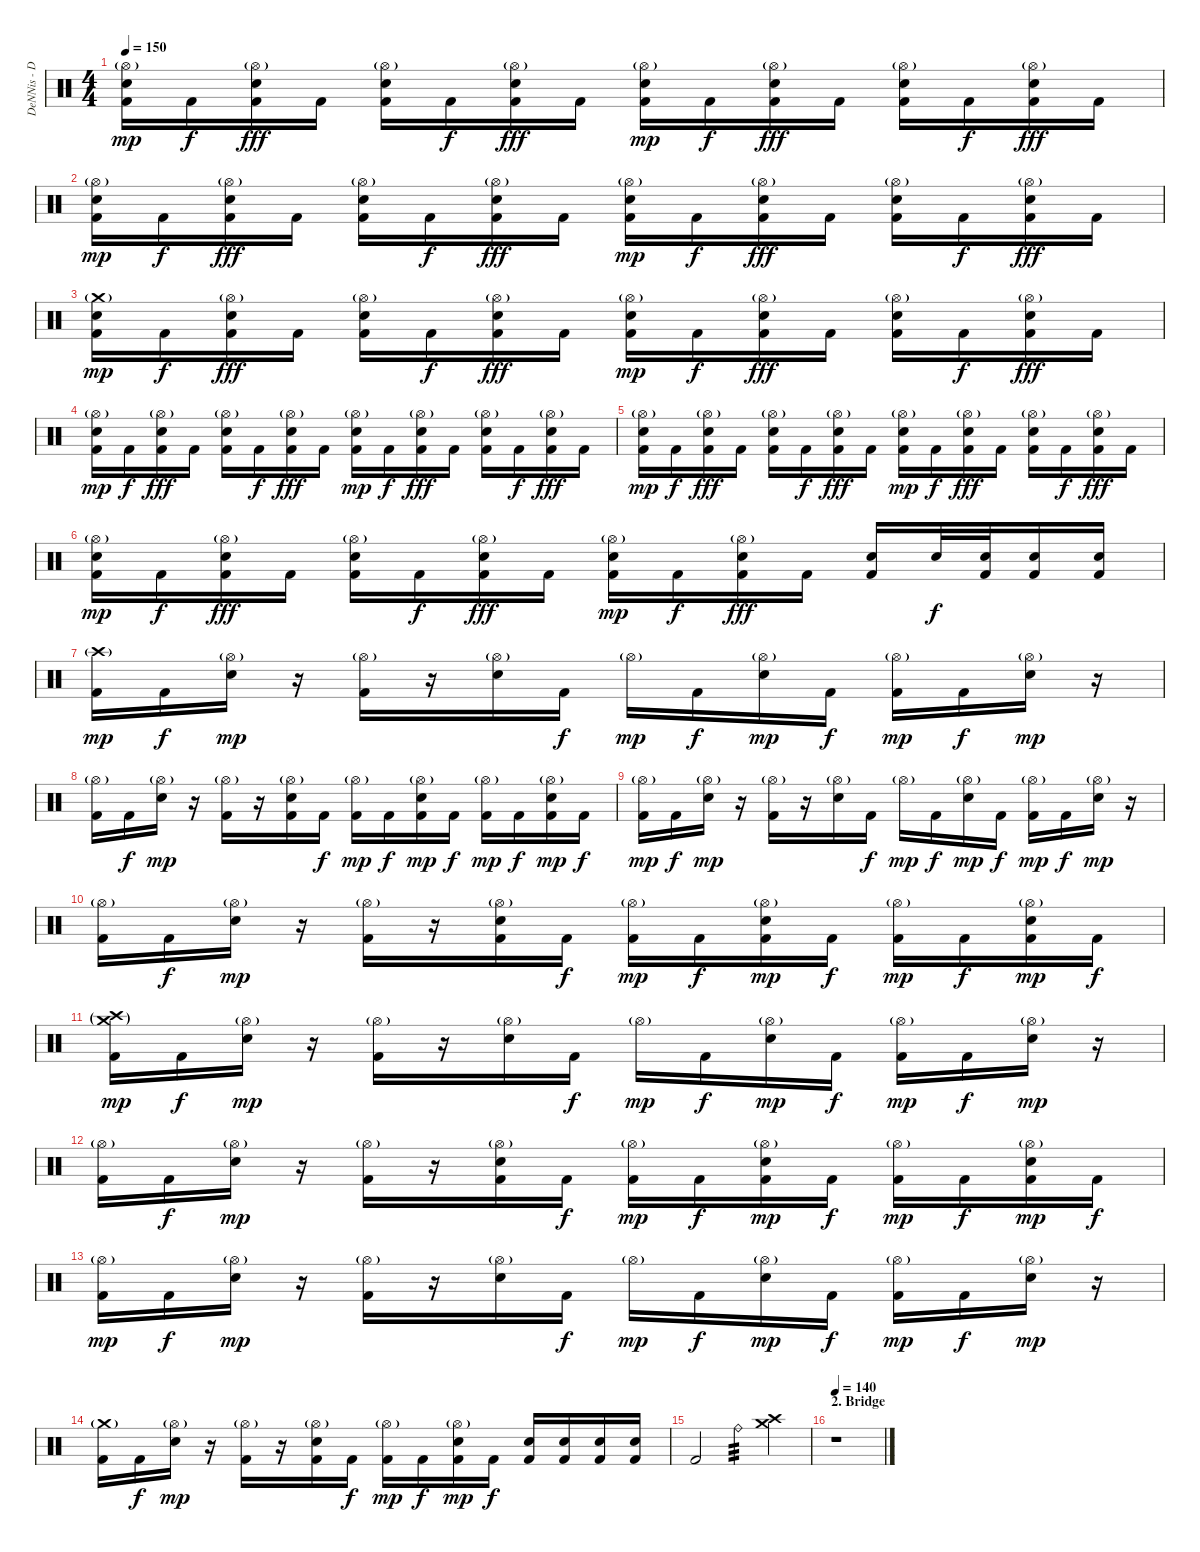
\track ("DeNNis - Drums" "DeNNis - D") {instrument percussion}
\staff {score}
\articulation defaults
\ts (4 4)
\tempo 150
\clef neutral
\ks c
("Hi-Hat (open)"{g} "Electric Snare (hit)" "Kick (hit) 2").16{dy mp} "Kick (hit) 2".16{dy f} ("Hi-Hat (open)"{g} "Electric Snare (hit)" "Kick (hit) 2").16{dy fff} "Kick (hit) 2".16 ("Hi-Hat (open)"{g} "Electric Snare (hit)" "Kick (hit) 2").16 "Kick (hit) 2".16{dy f} ("Hi-Hat (open)"{g} "Electric Snare (hit)" "Kick (hit) 2").16{dy fff} "Kick (hit) 2".16 ("Hi-Hat (open)"{g} "Electric Snare (hit)" "Kick (hit) 2").16{dy mp} "Kick (hit) 2".16{dy f} ("Hi-Hat (open)"{g} "Electric Snare (hit)" "Kick (hit) 2").16{dy fff} "Kick (hit) 2".16 ("Hi-Hat (open)"{g} "Electric Snare (hit)" "Kick (hit) 2").16 "Kick (hit) 2".16{dy f} ("Hi-Hat (open)"{g} "Electric Snare (hit)" "Kick (hit) 2").16{dy fff} "Kick (hit) 2".16 |
("Hi-Hat (open)"{g} "Electric Snare (hit)" "Kick (hit) 2").16{dy mp} "Kick (hit) 2".16{dy f} ("Hi-Hat (open)"{g} "Electric Snare (hit)" "Kick (hit) 2").16{dy fff} "Kick (hit) 2".16 ("Hi-Hat (open)"{g} "Electric Snare (hit)" "Kick (hit) 2").16 "Kick (hit) 2".16{dy f} ("Hi-Hat (open)"{g} "Electric Snare (hit)" "Kick (hit) 2").16{dy fff} "Kick (hit) 2".16 ("Hi-Hat (open)"{g} "Electric Snare (hit)" "Kick (hit) 2").16{dy mp} "Kick (hit) 2".16{dy f} ("Hi-Hat (open)"{g} "Electric Snare (hit)" "Kick (hit) 2").16{dy fff} "Kick (hit) 2".16 ("Hi-Hat (open)"{g} "Electric Snare (hit)" "Kick (hit) 2").16 "Kick (hit) 2".16{dy f} ("Hi-Hat (open)"{g} "Electric Snare (hit)" "Kick (hit) 2").16{dy fff} "Kick (hit) 2".16 |
("Crash medium (hit)"{g} "Electric Snare (hit)" "Kick (hit) 2").16{dy mp} "Kick (hit) 2".16{dy f} ("Hi-Hat (open)"{g} "Electric Snare (hit)" "Kick (hit) 2").16{dy fff} "Kick (hit) 2".16 ("Hi-Hat (open)"{g} "Electric Snare (hit)" "Kick (hit) 2").16 "Kick (hit) 2".16{dy f} ("Hi-Hat (open)"{g} "Electric Snare (hit)" "Kick (hit) 2").16{dy fff} "Kick (hit) 2".16 ("Hi-Hat (open)"{g} "Electric Snare (hit)" "Kick (hit) 2").16{dy mp} "Kick (hit) 2".16{dy f} ("Hi-Hat (open)"{g} "Electric Snare (hit)" "Kick (hit) 2").16{dy fff} "Kick (hit) 2".16 ("Hi-Hat (open)"{g} "Electric Snare (hit)" "Kick (hit) 2").16 "Kick (hit) 2".16{dy f} ("Hi-Hat (open)"{g} "Electric Snare (hit)" "Kick (hit) 2").16{dy fff} "Kick (hit) 2".16 |
("Hi-Hat (open)"{g} "Electric Snare (hit)" "Kick (hit) 2").16{dy mp} "Kick (hit) 2".16{dy f} ("Hi-Hat (open)"{g} "Electric Snare (hit)" "Kick (hit) 2").16{dy fff} "Kick (hit) 2".16 ("Hi-Hat (open)"{g} "Electric Snare (hit)" "Kick (hit) 2").16 "Kick (hit) 2".16{dy f} ("Hi-Hat (open)"{g} "Electric Snare (hit)" "Kick (hit) 2").16{dy fff} "Kick (hit) 2".16 ("Hi-Hat (open)"{g} "Electric Snare (hit)" "Kick (hit) 2").16{dy mp} "Kick (hit) 2".16{dy f} ("Hi-Hat (open)"{g} "Electric Snare (hit)" "Kick (hit) 2").16{dy fff} "Kick (hit) 2".16 ("Hi-Hat (open)"{g} "Electric Snare (hit)" "Kick (hit) 2").16 "Kick (hit) 2".16{dy f} ("Hi-Hat (open)"{g} "Electric Snare (hit)" "Kick (hit) 2").16{dy fff} "Kick (hit) 2".16 |
("Hi-Hat (open)"{g} "Electric Snare (hit)" "Kick (hit) 2").16{dy mp} "Kick (hit) 2".16{dy f} ("Hi-Hat (open)"{g} "Electric Snare (hit)" "Kick (hit) 2").16{dy fff} "Kick (hit) 2".16 ("Hi-Hat (open)"{g} "Electric Snare (hit)" "Kick (hit) 2").16 "Kick (hit) 2".16{dy f} ("Hi-Hat (open)"{g} "Electric Snare (hit)" "Kick (hit) 2").16{dy fff} "Kick (hit) 2".16 ("Hi-Hat (open)"{g} "Electric Snare (hit)" "Kick (hit) 2").16{dy mp} "Kick (hit) 2".16{dy f} ("Hi-Hat (open)"{g} "Electric Snare (hit)" "Kick (hit) 2").16{dy fff} "Kick (hit) 2".16 ("Hi-Hat (open)"{g} "Electric Snare (hit)" "Kick (hit) 2").16 "Kick (hit) 2".16{dy f} ("Hi-Hat (open)"{g} "Electric Snare (hit)" "Kick (hit) 2").16{dy fff} "Kick (hit) 2".16 |
("Hi-Hat (open)"{g} "Electric Snare (hit)" "Kick (hit) 2").16{dy mp} "Kick (hit) 2".16{dy f} ("Hi-Hat (open)"{g} "Electric Snare (hit)" "Kick (hit) 2").16{dy fff} "Kick (hit) 2".16 ("Hi-Hat (open)"{g} "Electric Snare (hit)" "Kick (hit) 2").16 "Kick (hit) 2".16{dy f} ("Hi-Hat (open)"{g} "Electric Snare (hit)" "Kick (hit) 2").16{dy fff} "Kick (hit) 2".16 ("Hi-Hat (open)"{g} "Electric Snare (hit)" "Kick (hit) 2").16{dy mp} "Kick (hit) 2".16{dy f} ("Hi-Hat (open)"{g} "Electric Snare (hit)" "Kick (hit) 2").16{dy fff} "Kick (hit) 2".16 ("Electric Snare (hit)" "Kick (hit) 2").16 "Electric Snare (hit)".32{dy f} ("Electric Snare (hit)" "Kick (hit) 2").32 ("Electric Snare (hit)" "Kick (hit) 2").16 ("Electric Snare (hit)" "Kick (hit) 2").16 |
("Crash high (hit)"{g} "Kick (hit) 2").16{dy mp} "Kick (hit) 2".16{dy f} ("Hi-Hat (open)"{g} "Electric Snare (hit)").16{dy mp} r.16 ("Hi-Hat (open)"{g} "Kick (hit) 2").16 r.16 ("Hi-Hat (open)"{g} "Electric Snare (hit)").16 "Kick (hit) 2".16{dy f} "Hi-Hat (open)"{g}.16{dy mp} "Kick (hit) 2".16{dy f} ("Hi-Hat (open)"{g} "Electric Snare (hit)").16{dy mp} "Kick (hit) 2".16{dy f} ("Hi-Hat (open)"{g} "Kick (hit) 2").16{dy mp} "Kick (hit) 2".16{dy f} ("Hi-Hat (open)"{g} "Electric Snare (hit)").16{dy mp} r.16 |
("Hi-Hat (open)"{g} "Kick (hit) 2").16 "Kick (hit) 2".16{dy f} ("Hi-Hat (open)"{g} "Electric Snare (hit)").16{dy mp} r.16 ("Hi-Hat (open)"{g} "Kick (hit) 2").16 r.16 ("Hi-Hat (open)"{g} "Electric Snare (hit)" "Kick (hit) 2").16 "Kick (hit) 2".16{dy f} ("Hi-Hat (open)"{g} "Kick (hit) 2").16{dy mp} "Kick (hit) 2".16{dy f} ("Hi-Hat (open)"{g} "Electric Snare (hit)" "Kick (hit) 2").16{dy mp} "Kick (hit) 2".16{dy f} ("Hi-Hat (open)"{g} "Kick (hit) 2").16{dy mp} "Kick (hit) 2".16{dy f} ("Hi-Hat (open)"{g} "Electric Snare (hit)" "Kick (hit) 2").16{dy mp} "Kick (hit) 2".16{dy f} |
("Hi-Hat (open)"{g} "Kick (hit) 2").16{dy mp} "Kick (hit) 2".16{dy f} ("Hi-Hat (open)"{g} "Electric Snare (hit)").16{dy mp} r.16 ("Hi-Hat (open)"{g} "Kick (hit) 2").16 r.16 ("Hi-Hat (open)"{g} "Electric Snare (hit)").16 "Kick (hit) 2".16{dy f} "Hi-Hat (open)"{g}.16{dy mp} "Kick (hit) 2".16{dy f} ("Hi-Hat (open)"{g} "Electric Snare (hit)").16{dy mp} "Kick (hit) 2".16{dy f} ("Hi-Hat (open)"{g} "Kick (hit) 2").16{dy mp} "Kick (hit) 2".16{dy f} ("Hi-Hat (open)"{g} "Electric Snare (hit)").16{dy mp} r.16 |
("Hi-Hat (open)"{g} "Kick (hit) 2").16 "Kick (hit) 2".16{dy f} ("Hi-Hat (open)"{g} "Electric Snare (hit)").16{dy mp} r.16 ("Hi-Hat (open)"{g} "Kick (hit) 2").16 r.16 ("Hi-Hat (open)"{g} "Electric Snare (hit)" "Kick (hit) 2").16 "Kick (hit) 2".16{dy f} ("Hi-Hat (open)"{g} "Kick (hit) 2").16{dy mp} "Kick (hit) 2".16{dy f} ("Hi-Hat (open)"{g} "Electric Snare (hit)" "Kick (hit) 2").16{dy mp} "Kick (hit) 2".16{dy f} ("Hi-Hat (open)"{g} "Kick (hit) 2").16{dy mp} "Kick (hit) 2".16{dy f} ("Hi-Hat (open)"{g} "Electric Snare (hit)" "Kick (hit) 2").16{dy mp} "Kick (hit) 2".16{dy f} |
("Crash medium (hit)"{g} "Crash high (hit)"{g} "Kick (hit) 2").16{dy mp} "Kick (hit) 2".16{dy f} ("Hi-Hat (open)"{g} "Electric Snare (hit)").16{dy mp} r.16 ("Hi-Hat (open)"{g} "Kick (hit) 2").16 r.16 ("Hi-Hat (open)"{g} "Electric Snare (hit)").16 "Kick (hit) 2".16{dy f} "Hi-Hat (open)"{g}.16{dy mp} "Kick (hit) 2".16{dy f} ("Hi-Hat (open)"{g} "Electric Snare (hit)").16{dy mp} "Kick (hit) 2".16{dy f} ("Hi-Hat (open)"{g} "Kick (hit) 2").16{dy mp} "Kick (hit) 2".16{dy f} ("Hi-Hat (open)"{g} "Electric Snare (hit)").16{dy mp} r.16 |
("Hi-Hat (open)"{g} "Kick (hit) 2").16 "Kick (hit) 2".16{dy f} ("Hi-Hat (open)"{g} "Electric Snare (hit)").16{dy mp} r.16 ("Hi-Hat (open)"{g} "Kick (hit) 2").16 r.16 ("Hi-Hat (open)"{g} "Electric Snare (hit)" "Kick (hit) 2").16 "Kick (hit) 2".16{dy f} ("Hi-Hat (open)"{g} "Kick (hit) 2").16{dy mp} "Kick (hit) 2".16{dy f} ("Hi-Hat (open)"{g} "Electric Snare (hit)" "Kick (hit) 2").16{dy mp} "Kick (hit) 2".16{dy f} ("Hi-Hat (open)"{g} "Kick (hit) 2").16{dy mp} "Kick (hit) 2".16{dy f} ("Hi-Hat (open)"{g} "Electric Snare (hit)" "Kick (hit) 2").16{dy mp} "Kick (hit) 2".16{dy f} |
("Hi-Hat (open)"{g} "Kick (hit) 2").16{dy mp} "Kick (hit) 2".16{dy f} ("Hi-Hat (open)"{g} "Electric Snare (hit)").16{dy mp} r.16 ("Hi-Hat (open)"{g} "Kick (hit) 2").16 r.16 ("Hi-Hat (open)"{g} "Electric Snare (hit)").16 "Kick (hit) 2".16{dy f} "Hi-Hat (open)"{g}.16{dy mp} "Kick (hit) 2".16{dy f} ("Hi-Hat (open)"{g} "Electric Snare (hit)").16{dy mp} "Kick (hit) 2".16{dy f} ("Hi-Hat (open)"{g} "Kick (hit) 2").16{dy mp} "Kick (hit) 2".16{dy f} ("Hi-Hat (open)"{g} "Electric Snare (hit)").16{dy mp} r.16 |
("Crash medium (hit)"{g} "Kick (hit) 2").16 "Kick (hit) 2".16{dy f} ("Hi-Hat (open)"{g} "Electric Snare (hit)").16{dy mp} r.16 ("Hi-Hat (open)"{g} "Kick (hit) 2").16 r.16 ("Hi-Hat (open)"{g} "Electric Snare (hit)" "Kick (hit) 2").16 "Kick (hit) 2".16{dy f} ("Hi-Hat (open)"{g} "Kick (hit) 2").16{dy mp} "Kick (hit) 2".16{dy f} ("Hi-Hat (open)"{g} "Electric Snare (hit)" "Kick (hit) 2").16{dy mp} "Kick (hit) 2".16{dy f} ("Electric Snare (hit)" "Kick (hit) 2").16 ("Electric Snare (hit)" "Kick (hit) 2").16 ("Electric Snare (hit)" "Kick (hit) 2").16 ("Electric Snare (hit)" "Kick (hit) 2").16 |
"Kick (hit) 2".2 "Ride (bell)".4{tp 3} ("Crash medium (hit)" "Crash high (hit)").4 |
\section ("" "2. Bridge")
\tempo 140
r.1
